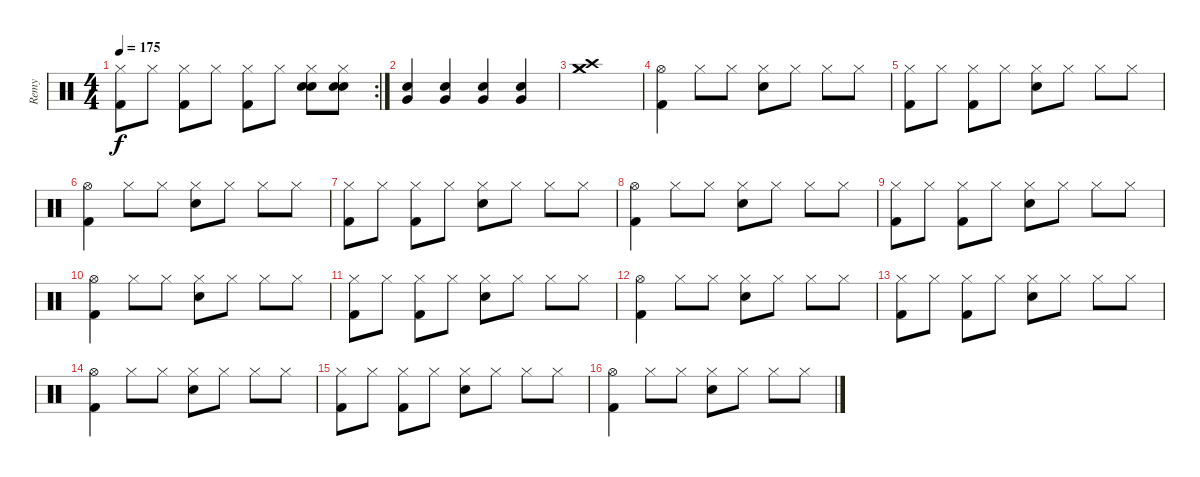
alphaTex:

\track ("Remy" "Remy") {instrument percussion}
\staff {score}
\articulation defaults
\rc 2
\ts (4 4)
\tempo 175
\clef neutral
\ks c
("Hi-Hat (closed)" "Kick (hit) 2").8{dy f} "Hi-Hat (closed)".8 ("Hi-Hat (closed)" "Kick (hit) 2").8 "Hi-Hat (closed)".8 ("Hi-Hat (closed)" "Kick (hit) 2").8 "Hi-Hat (closed)".8 ("Snare (hit) 2" "Hi-Hat (closed)" "Snare (hit) 2").8 ("Snare (hit) 2" "Hi-Hat (closed)" "Snare (hit) 2").8 |
("Snare (hit) 2" "Very Low Tom (hit)").4 ("Snare (hit) 2" "Very Low Tom (hit)").4 ("Snare (hit) 2" "Very Low Tom (hit)").4 ("Snare (hit) 2" "Very Low Tom (hit)").4 |
("Crash medium (hit)" "Crash medium (hit)" "Crash high (hit)").1 |
("Hi-Hat (open)" "Kick (hit) 2").4 "Hi-Hat (closed)".8 "Hi-Hat (closed)".8 ("Snare (hit) 2" "Hi-Hat (closed)").8 "Hi-Hat (closed)".8 "Hi-Hat (closed)".8 "Hi-Hat (closed)".8 |
("Hi-Hat (closed)" "Kick (hit) 2").8 "Hi-Hat (closed)".8 ("Hi-Hat (closed)" "Kick (hit) 2").8 "Hi-Hat (closed)".8 ("Snare (hit) 2" "Hi-Hat (closed)").8 "Hi-Hat (closed)".8 "Hi-Hat (closed)".8 "Hi-Hat (closed)".8 |
("Hi-Hat (open)" "Kick (hit) 2").4 "Hi-Hat (closed)".8 "Hi-Hat (closed)".8 ("Snare (hit) 2" "Hi-Hat (closed)").8 "Hi-Hat (closed)".8 "Hi-Hat (closed)".8 "Hi-Hat (closed)".8 |
("Hi-Hat (closed)" "Kick (hit) 2").8 "Hi-Hat (closed)".8 ("Hi-Hat (closed)" "Kick (hit) 2").8 "Hi-Hat (closed)".8 ("Snare (hit) 2" "Hi-Hat (closed)").8 "Hi-Hat (closed)".8 "Hi-Hat (closed)".8 "Hi-Hat (closed)".8 |
("Hi-Hat (open)" "Kick (hit) 2").4 "Hi-Hat (closed)".8 "Hi-Hat (closed)".8 ("Snare (hit) 2" "Hi-Hat (closed)").8 "Hi-Hat (closed)".8 "Hi-Hat (closed)".8 "Hi-Hat (closed)".8 |
("Hi-Hat (closed)" "Kick (hit) 2").8 "Hi-Hat (closed)".8 ("Hi-Hat (closed)" "Kick (hit) 2").8 "Hi-Hat (closed)".8 ("Snare (hit) 2" "Hi-Hat (closed)").8 "Hi-Hat (closed)".8 "Hi-Hat (closed)".8 "Hi-Hat (closed)".8 |
("Hi-Hat (open)" "Kick (hit) 2").4 "Hi-Hat (closed)".8 "Hi-Hat (closed)".8 ("Snare (hit) 2" "Hi-Hat (closed)").8 "Hi-Hat (closed)".8 "Hi-Hat (closed)".8 "Hi-Hat (closed)".8 |
("Hi-Hat (closed)" "Kick (hit) 2").8 "Hi-Hat (closed)".8 ("Hi-Hat (closed)" "Kick (hit) 2").8 "Hi-Hat (closed)".8 ("Snare (hit) 2" "Hi-Hat (closed)").8 "Hi-Hat (closed)".8 "Hi-Hat (closed)".8 "Hi-Hat (closed)".8 |
("Hi-Hat (open)" "Kick (hit) 2").4 "Hi-Hat (closed)".8 "Hi-Hat (closed)".8 ("Snare (hit) 2" "Hi-Hat (closed)").8 "Hi-Hat (closed)".8 "Hi-Hat (closed)".8 "Hi-Hat (closed)".8 |
("Hi-Hat (closed)" "Kick (hit) 2").8 "Hi-Hat (closed)".8 ("Hi-Hat (closed)" "Kick (hit) 2").8 "Hi-Hat (closed)".8 ("Snare (hit) 2" "Hi-Hat (closed)").8 "Hi-Hat (closed)".8 "Hi-Hat (closed)".8 "Hi-Hat (closed)".8 |
("Hi-Hat (open)" "Kick (hit) 2").4 "Hi-Hat (closed)".8 "Hi-Hat (closed)".8 ("Snare (hit) 2" "Hi-Hat (closed)").8 "Hi-Hat (closed)".8 "Hi-Hat (closed)".8 "Hi-Hat (closed)".8 |
("Hi-Hat (closed)" "Kick (hit) 2").8 "Hi-Hat (closed)".8 ("Hi-Hat (closed)" "Kick (hit) 2").8 "Hi-Hat (closed)".8 ("Snare (hit) 2" "Hi-Hat (closed)").8 "Hi-Hat (closed)".8 "Hi-Hat (closed)".8 "Hi-Hat (closed)".8 |
("Hi-Hat (open)" "Kick (hit) 2").4 "Hi-Hat (closed)".8 "Hi-Hat (closed)".8 ("Snare (hit) 2" "Hi-Hat (closed)").8 "Hi-Hat (closed)".8 "Hi-Hat (closed)".8 "Hi-Hat (closed)".8
